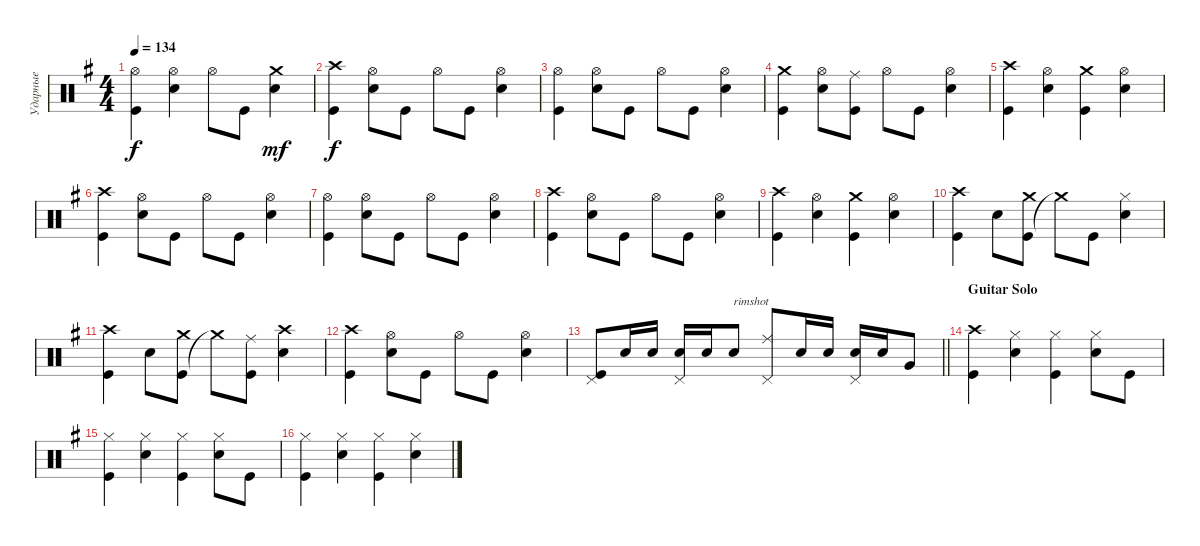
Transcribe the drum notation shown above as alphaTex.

\track ("Ударные" "Ударные") {instrument percussion}
\staff {score}
\articulation defaults
\ts (4 4)
\tempo 134
\clef neutral
\ks eminor
("Kick (hit)" "Hi-Hat (open)").4{dy f} ("Snare (hit) 2" "Hi-Hat (open)").4 "Hi-Hat (open)".8 "Kick (hit)".8 ("Snare (hit) 2" "Crash medium (hit)").4{dy mf} |
("Kick (hit)" "Crash high (hit)").4{dy f} ("Snare (hit) 2" "Hi-Hat (open)").8 "Kick (hit)".8 "Hi-Hat (open)".8 "Kick (hit)".8 ("Snare (hit) 2" "Hi-Hat (open)").4 |
("Kick (hit)" "Hi-Hat (open)").4 ("Snare (hit) 2" "Hi-Hat (open)").8 "Kick (hit)".8 "Hi-Hat (open)".8 "Kick (hit)".8 ("Snare (hit) 2" "Hi-Hat (open)").4 |
("Kick (hit)" "Crash medium (hit)").4 ("Snare (hit) 2" "Hi-Hat (open)").8 ("Kick (hit)" "Ride (middle)").8 "Hi-Hat (open)".8 "Kick (hit)".8 ("Snare (hit) 2" "Hi-Hat (open)").4 |
("Kick (hit)" "Crash high (hit)").4 ("Snare (hit) 2" "Hi-Hat (open)").4 ("Crash medium (hit)" "Kick (hit)").4 ("Snare (hit) 2" "Hi-Hat (open)").4 |
("Kick (hit)" "Crash high (hit)").4 ("Snare (hit) 2" "Hi-Hat (open)").8 "Kick (hit)".8 "Hi-Hat (open)".8 "Kick (hit)".8 ("Snare (hit) 2" "Hi-Hat (open)").4 |
("Kick (hit)" "Hi-Hat (open)").4 ("Snare (hit) 2" "Hi-Hat (open)").8 "Kick (hit)".8 "Hi-Hat (open)".8 "Kick (hit)".8 ("Snare (hit) 2" "Hi-Hat (open)").4 |
("Kick (hit)" "Crash high (hit)").4 ("Snare (hit) 2" "Hi-Hat (open)").8 "Kick (hit)".8 "Hi-Hat (open)".8 "Kick (hit)".8 ("Snare (hit) 2" "Hi-Hat (open)").4 |
("Kick (hit)" "Crash high (hit)").4 ("Snare (hit) 2" "Hi-Hat (open)").4 ("Crash medium (hit)" "Kick (hit)").4 ("Snare (hit) 2" "Hi-Hat (open)").4 |
("Kick (hit)" "Crash high (hit)").4 "Snare (hit) 2".8 ("Kick (hit)" "Crash medium (hit)").8 "Crash medium (hit)"{t}.8 "Kick (hit)".8 ("Hi-Hat (closed)" "Snare (hit) 2").4 |
("Kick (hit)" "Crash high (hit)").4 "Snare (hit) 2".8 ("Kick (hit)" "Crash medium (hit)").8 "Crash medium (hit)"{t}.8 ("Kick (hit)" "Ride (middle)").8 ("Crash high (hit)" "Snare (hit) 2").4 |
("Kick (hit)" "Crash high (hit)").4 ("Snare (hit) 2" "Hi-Hat (open)").8 "Kick (hit)".8 "Hi-Hat (open)".8 "Kick (hit)".8 ("Snare (hit) 2" "Hi-Hat (open)").4 |
\barLineRight lightlight
("Kick (hit)" "Pedal Hi-Hat (hit)").8 "Snare (hit) 2".16 "Snare (hit) 2".16 ("Snare (hit) 2" "Pedal Hi-Hat (hit)").16 "Snare (hit) 2".16 "Electric Snare (hit)".8{txt "rimshot"} ("Ride (middle)" "Pedal Hi-Hat (hit)").8 "Snare (hit) 2".16 "Snare (hit) 2".16 ("Snare (hit) 2" "Pedal Hi-Hat (hit)").16 "Snare (hit) 2".16 "Very Low Tom (hit)".8 |
\section ("" "Guitar Solo")
("Kick (hit)" "Crash high (hit)").4 ("Snare (hit) 2" "Hi-Hat (closed)").4 ("Kick (hit)" "Hi-Hat (closed)").4 ("Snare (hit) 2" "Hi-Hat (closed)").8 "Kick (hit)".8 |
("Kick (hit)" "Hi-Hat (closed)").4 ("Snare (hit) 2" "Hi-Hat (closed)").4 ("Kick (hit)" "Hi-Hat (closed)").4 ("Snare (hit) 2" "Hi-Hat (closed)").8 "Kick (hit)".8 |
("Kick (hit)" "Hi-Hat (closed)").4 ("Snare (hit) 2" "Hi-Hat (closed)").4 ("Kick (hit)" "Hi-Hat (closed)").4 ("Snare (hit) 2" "Hi-Hat (closed)").4
